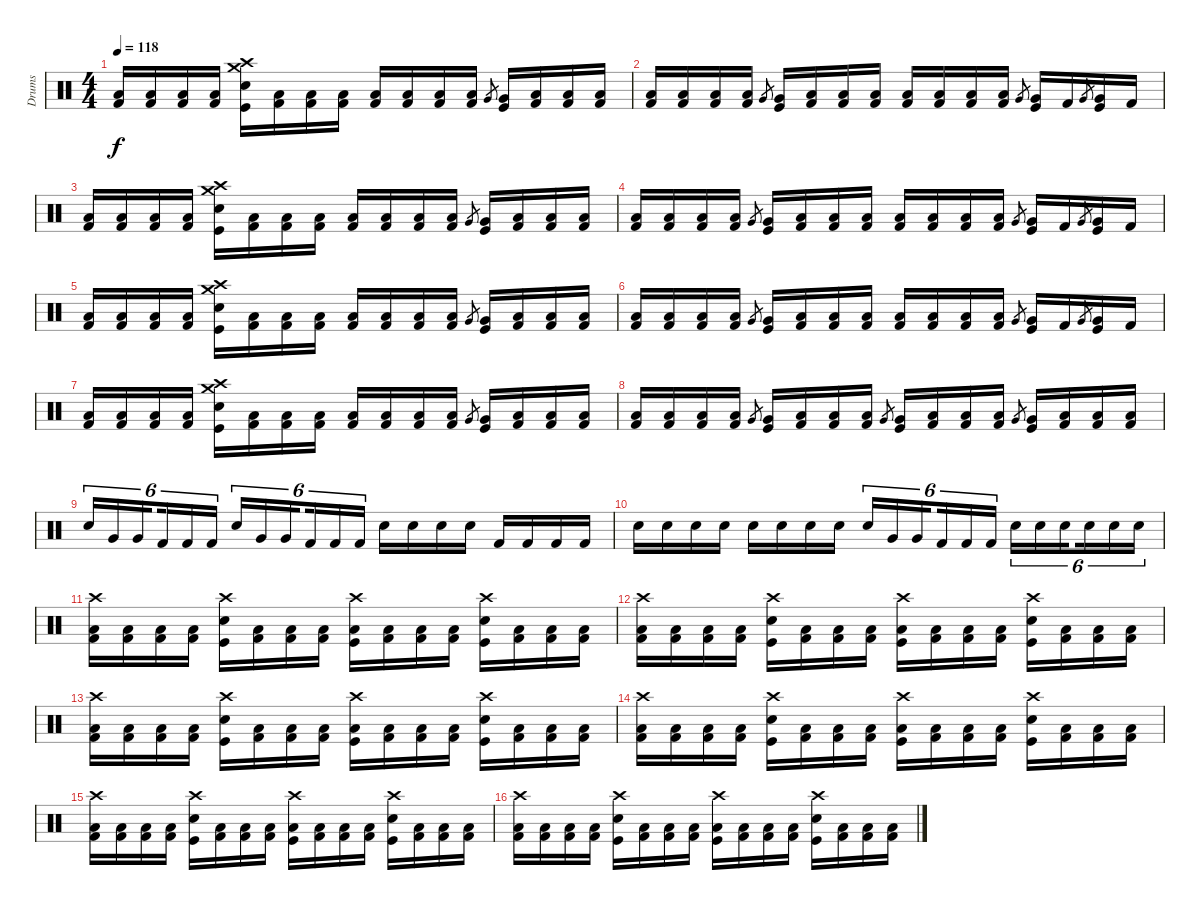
\track ("Drums" "Drums") {instrument percussion}
\staff {score}
\articulation defaults
\ts (4 4)
\tempo 118
\clef neutral
\ks c
("Kick (hit) 2" "Low Floor Tom (hit)").16{dy f} ("Kick (hit) 2" "Low Floor Tom (hit)").16 ("Kick (hit) 2" "Low Floor Tom (hit)").16 ("Kick (hit) 2" "Low Floor Tom (hit)").16 ("Kick (hit)" "Snare (hit) 2" "Crash medium (hit)" "Crash high (hit)").16 ("Kick (hit) 2" "Low Floor Tom (hit)").16 ("Kick (hit) 2" "Low Floor Tom (hit)").16 ("Kick (hit) 2" "Low Floor Tom (hit)").16 ("Kick (hit) 2" "Low Floor Tom (hit)").16 ("Kick (hit) 2" "Low Floor Tom (hit)").16 ("Kick (hit) 2" "Low Floor Tom (hit)").16 ("Kick (hit) 2" "Low Floor Tom (hit)").16 "Very Low Tom (hit)".8{gr} ("Kick (hit)" "Very Low Tom (hit)").16 ("Kick (hit) 2" "Low Floor Tom (hit)").16 ("Kick (hit) 2" "Low Floor Tom (hit)").16 ("Kick (hit) 2" "Low Floor Tom (hit)").16 |
("Kick (hit) 2" "Low Floor Tom (hit)").16 ("Kick (hit) 2" "Low Floor Tom (hit)").16 ("Kick (hit) 2" "Low Floor Tom (hit)").16 ("Kick (hit) 2" "Low Floor Tom (hit)").16 "Very Low Tom (hit)".8{gr} ("Kick (hit)" "Very Low Tom (hit)").16 ("Kick (hit) 2" "Low Floor Tom (hit)").16 ("Kick (hit) 2" "Low Floor Tom (hit)").16 ("Kick (hit) 2" "Low Floor Tom (hit)").16 ("Kick (hit) 2" "Low Floor Tom (hit)").16 ("Kick (hit) 2" "Low Floor Tom (hit)").16 ("Kick (hit) 2" "Low Floor Tom (hit)").16 ("Kick (hit) 2" "Low Floor Tom (hit)").16 "Very Low Tom (hit)".8{gr} ("Kick (hit)" "Very Low Tom (hit)").16 "Kick (hit) 2".16 "Very Low Tom (hit)".8{gr} ("Kick (hit)" "Very Low Tom (hit)").16 "Kick (hit) 2".16 |
("Kick (hit) 2" "Low Floor Tom (hit)").16 ("Kick (hit) 2" "Low Floor Tom (hit)").16 ("Kick (hit) 2" "Low Floor Tom (hit)").16 ("Kick (hit) 2" "Low Floor Tom (hit)").16 ("Kick (hit)" "Snare (hit) 2" "Crash medium (hit)" "Crash high (hit)").16 ("Kick (hit) 2" "Low Floor Tom (hit)").16 ("Kick (hit) 2" "Low Floor Tom (hit)").16 ("Kick (hit) 2" "Low Floor Tom (hit)").16 ("Kick (hit) 2" "Low Floor Tom (hit)").16 ("Kick (hit) 2" "Low Floor Tom (hit)").16 ("Kick (hit) 2" "Low Floor Tom (hit)").16 ("Kick (hit) 2" "Low Floor Tom (hit)").16 "Very Low Tom (hit)".8{gr} ("Kick (hit)" "Very Low Tom (hit)").16 ("Kick (hit) 2" "Low Floor Tom (hit)").16 ("Kick (hit) 2" "Low Floor Tom (hit)").16 ("Kick (hit) 2" "Low Floor Tom (hit)").16 |
("Kick (hit) 2" "Low Floor Tom (hit)").16 ("Kick (hit) 2" "Low Floor Tom (hit)").16 ("Kick (hit) 2" "Low Floor Tom (hit)").16 ("Kick (hit) 2" "Low Floor Tom (hit)").16 "Very Low Tom (hit)".8{gr} ("Kick (hit)" "Very Low Tom (hit)").16 ("Kick (hit) 2" "Low Floor Tom (hit)").16 ("Kick (hit) 2" "Low Floor Tom (hit)").16 ("Kick (hit) 2" "Low Floor Tom (hit)").16 ("Kick (hit) 2" "Low Floor Tom (hit)").16 ("Kick (hit) 2" "Low Floor Tom (hit)").16 ("Kick (hit) 2" "Low Floor Tom (hit)").16 ("Kick (hit) 2" "Low Floor Tom (hit)").16 "Very Low Tom (hit)".8{gr} ("Kick (hit)" "Very Low Tom (hit)").16 "Kick (hit) 2".16 "Very Low Tom (hit)".8{gr} ("Kick (hit)" "Very Low Tom (hit)").16 "Kick (hit) 2".16 |
("Kick (hit) 2" "Low Floor Tom (hit)").16 ("Kick (hit) 2" "Low Floor Tom (hit)").16 ("Kick (hit) 2" "Low Floor Tom (hit)").16 ("Kick (hit) 2" "Low Floor Tom (hit)").16 ("Kick (hit)" "Snare (hit) 2" "Crash medium (hit)" "Crash high (hit)").16 ("Kick (hit) 2" "Low Floor Tom (hit)").16 ("Kick (hit) 2" "Low Floor Tom (hit)").16 ("Kick (hit) 2" "Low Floor Tom (hit)").16 ("Kick (hit) 2" "Low Floor Tom (hit)").16 ("Kick (hit) 2" "Low Floor Tom (hit)").16 ("Kick (hit) 2" "Low Floor Tom (hit)").16 ("Kick (hit) 2" "Low Floor Tom (hit)").16 "Very Low Tom (hit)".8{gr} ("Kick (hit)" "Very Low Tom (hit)").16 ("Kick (hit) 2" "Low Floor Tom (hit)").16 ("Kick (hit) 2" "Low Floor Tom (hit)").16 ("Kick (hit) 2" "Low Floor Tom (hit)").16 |
("Kick (hit) 2" "Low Floor Tom (hit)").16 ("Kick (hit) 2" "Low Floor Tom (hit)").16 ("Kick (hit) 2" "Low Floor Tom (hit)").16 ("Kick (hit) 2" "Low Floor Tom (hit)").16 "Very Low Tom (hit)".8{gr} ("Kick (hit)" "Very Low Tom (hit)").16 ("Kick (hit) 2" "Low Floor Tom (hit)").16 ("Kick (hit) 2" "Low Floor Tom (hit)").16 ("Kick (hit) 2" "Low Floor Tom (hit)").16 ("Kick (hit) 2" "Low Floor Tom (hit)").16 ("Kick (hit) 2" "Low Floor Tom (hit)").16 ("Kick (hit) 2" "Low Floor Tom (hit)").16 ("Kick (hit) 2" "Low Floor Tom (hit)").16 "Very Low Tom (hit)".8{gr} ("Kick (hit)" "Very Low Tom (hit)").16 "Kick (hit) 2".16 "Very Low Tom (hit)".8{gr} ("Kick (hit)" "Very Low Tom (hit)").16 "Kick (hit) 2".16 |
("Kick (hit) 2" "Low Floor Tom (hit)").16 ("Kick (hit) 2" "Low Floor Tom (hit)").16 ("Kick (hit) 2" "Low Floor Tom (hit)").16 ("Kick (hit) 2" "Low Floor Tom (hit)").16 ("Kick (hit)" "Snare (hit) 2" "Crash medium (hit)" "Crash high (hit)").16 ("Kick (hit) 2" "Low Floor Tom (hit)").16 ("Kick (hit) 2" "Low Floor Tom (hit)").16 ("Kick (hit) 2" "Low Floor Tom (hit)").16 ("Kick (hit) 2" "Low Floor Tom (hit)").16 ("Kick (hit) 2" "Low Floor Tom (hit)").16 ("Kick (hit) 2" "Low Floor Tom (hit)").16 ("Kick (hit) 2" "Low Floor Tom (hit)").16 "Very Low Tom (hit)".8{gr} ("Kick (hit)" "Very Low Tom (hit)").16 ("Kick (hit) 2" "Low Floor Tom (hit)").16 ("Kick (hit) 2" "Low Floor Tom (hit)").16 ("Kick (hit) 2" "Low Floor Tom (hit)").16 |
("Kick (hit) 2" "Low Floor Tom (hit)").16 ("Kick (hit) 2" "Low Floor Tom (hit)").16 ("Kick (hit) 2" "Low Floor Tom (hit)").16 ("Kick (hit) 2" "Low Floor Tom (hit)").16 "Very Low Tom (hit)".8{gr} ("Kick (hit)" "Very Low Tom (hit)").16 ("Kick (hit) 2" "Low Floor Tom (hit)").16 ("Kick (hit) 2" "Low Floor Tom (hit)").16 ("Kick (hit) 2" "Low Floor Tom (hit)").16 "Very Low Tom (hit)".8{gr} ("Kick (hit)" "Very Low Tom (hit)").16 ("Kick (hit) 2" "Low Floor Tom (hit)").16 ("Kick (hit) 2" "Low Floor Tom (hit)").16 ("Kick (hit) 2" "Low Floor Tom (hit)").16 "Very Low Tom (hit)".8{gr} ("Kick (hit)" "Very Low Tom (hit)").16 ("Kick (hit) 2" "Low Floor Tom (hit)").16 ("Kick (hit) 2" "Low Floor Tom (hit)").16 ("Kick (hit) 2" "Low Floor Tom (hit)").16 |
"Electric Snare (hit)".16{tu (6 4)} "Very Low Tom (hit)".16{tu (6 4)} "Very Low Tom (hit)".16{tu (6 4) beam splitsecondary} "Kick (hit) 2".16{tu (6 4)} "Kick (hit) 2".16{tu (6 4)} "Kick (hit) 2".16{tu (6 4)} "Electric Snare (hit)".16{tu (6 4)} "Very Low Tom (hit)".16{tu (6 4)} "Very Low Tom (hit)".16{tu (6 4) beam splitsecondary} "Kick (hit) 2".16{tu (6 4)} "Kick (hit) 2".16{tu (6 4)} "Kick (hit) 2".16{tu (6 4)} "Electric Snare (hit)".16 "Electric Snare (hit)".16 "Electric Snare (hit)".16 "Electric Snare (hit)".16 "Kick (hit) 2".16 "Kick (hit) 2".16 "Kick (hit) 2".16 "Kick (hit) 2".16 |
"Electric Snare (hit)".16 "Electric Snare (hit)".16 "Electric Snare (hit)".16 "Electric Snare (hit)".16 "Electric Snare (hit)".16 "Electric Snare (hit)".16 "Electric Snare (hit)".16 "Electric Snare (hit)".16 "Electric Snare (hit)".16{tu (6 4)} "Very Low Tom (hit)".16{tu (6 4)} "Very Low Tom (hit)".16{tu (6 4) beam splitsecondary} "Kick (hit) 2".16{tu (6 4)} "Kick (hit) 2".16{tu (6 4)} "Kick (hit) 2".16{tu (6 4)} "Electric Snare (hit)".16{tu (6 4)} "Electric Snare (hit)".16{tu (6 4)} "Electric Snare (hit)".16{tu (6 4) beam splitsecondary} "Electric Snare (hit)".16{tu (6 4)} "Electric Snare (hit)".16{tu (6 4)} "Electric Snare (hit)".16{tu (6 4)} |
("Kick (hit) 2" "Low Floor Tom (hit)" "Crash high (hit)").16 ("Kick (hit) 2" "Low Floor Tom (hit)").16 ("Kick (hit) 2" "Low Floor Tom (hit)").16 ("Kick (hit) 2" "Low Floor Tom (hit)").16 ("Kick (hit)" "Snare (hit) 2" "Crash high (hit)").16 ("Kick (hit) 2" "Low Floor Tom (hit)").16 ("Kick (hit) 2" "Low Floor Tom (hit)").16 ("Kick (hit) 2" "Low Floor Tom (hit)").16 ("Kick (hit)" "Low Floor Tom (hit)" "Crash high (hit)").16 ("Kick (hit) 2" "Low Floor Tom (hit)").16 ("Kick (hit) 2" "Low Floor Tom (hit)").16 ("Kick (hit) 2" "Low Floor Tom (hit)").16 ("Kick (hit)" "Snare (hit) 2" "Crash high (hit)").16 ("Kick (hit) 2" "Low Floor Tom (hit)").16 ("Kick (hit) 2" "Low Floor Tom (hit)").16 ("Kick (hit) 2" "Low Floor Tom (hit)").16 |
("Kick (hit) 2" "Low Floor Tom (hit)" "Crash high (hit)").16 ("Kick (hit) 2" "Low Floor Tom (hit)").16 ("Kick (hit) 2" "Low Floor Tom (hit)").16 ("Kick (hit) 2" "Low Floor Tom (hit)").16 ("Kick (hit)" "Snare (hit) 2" "Crash high (hit)").16 ("Kick (hit) 2" "Low Floor Tom (hit)").16 ("Kick (hit) 2" "Low Floor Tom (hit)").16 ("Kick (hit) 2" "Low Floor Tom (hit)").16 ("Kick (hit)" "Low Floor Tom (hit)" "Crash high (hit)").16 ("Kick (hit) 2" "Low Floor Tom (hit)").16 ("Kick (hit) 2" "Low Floor Tom (hit)").16 ("Kick (hit) 2" "Low Floor Tom (hit)").16 ("Kick (hit)" "Snare (hit) 2" "Crash high (hit)").16 ("Kick (hit) 2" "Low Floor Tom (hit)").16 ("Kick (hit) 2" "Low Floor Tom (hit)").16 ("Kick (hit) 2" "Low Floor Tom (hit)").16 |
("Kick (hit) 2" "Low Floor Tom (hit)" "Crash high (hit)").16 ("Kick (hit) 2" "Low Floor Tom (hit)").16 ("Kick (hit) 2" "Low Floor Tom (hit)").16 ("Kick (hit) 2" "Low Floor Tom (hit)").16 ("Kick (hit)" "Snare (hit) 2" "Crash high (hit)").16 ("Kick (hit) 2" "Low Floor Tom (hit)").16 ("Kick (hit) 2" "Low Floor Tom (hit)").16 ("Kick (hit) 2" "Low Floor Tom (hit)").16 ("Kick (hit)" "Low Floor Tom (hit)" "Crash high (hit)").16 ("Kick (hit) 2" "Low Floor Tom (hit)").16 ("Kick (hit) 2" "Low Floor Tom (hit)").16 ("Kick (hit) 2" "Low Floor Tom (hit)").16 ("Kick (hit)" "Snare (hit) 2" "Crash high (hit)").16 ("Kick (hit) 2" "Low Floor Tom (hit)").16 ("Kick (hit) 2" "Low Floor Tom (hit)").16 ("Kick (hit) 2" "Low Floor Tom (hit)").16 |
("Kick (hit) 2" "Low Floor Tom (hit)" "Crash high (hit)").16 ("Kick (hit) 2" "Low Floor Tom (hit)").16 ("Kick (hit) 2" "Low Floor Tom (hit)").16 ("Kick (hit) 2" "Low Floor Tom (hit)").16 ("Kick (hit)" "Snare (hit) 2" "Crash high (hit)").16 ("Kick (hit) 2" "Low Floor Tom (hit)").16 ("Kick (hit) 2" "Low Floor Tom (hit)").16 ("Kick (hit) 2" "Low Floor Tom (hit)").16 ("Kick (hit)" "Low Floor Tom (hit)" "Crash high (hit)").16 ("Kick (hit) 2" "Low Floor Tom (hit)").16 ("Kick (hit) 2" "Low Floor Tom (hit)").16 ("Kick (hit) 2" "Low Floor Tom (hit)").16 ("Kick (hit)" "Snare (hit) 2" "Crash high (hit)").16 ("Kick (hit) 2" "Low Floor Tom (hit)").16 ("Kick (hit) 2" "Low Floor Tom (hit)").16 ("Kick (hit) 2" "Low Floor Tom (hit)").16 |
("Kick (hit) 2" "Low Floor Tom (hit)" "Crash high (hit)").16 ("Kick (hit) 2" "Low Floor Tom (hit)").16 ("Kick (hit) 2" "Low Floor Tom (hit)").16 ("Kick (hit) 2" "Low Floor Tom (hit)").16 ("Kick (hit)" "Snare (hit) 2" "Crash high (hit)").16 ("Kick (hit) 2" "Low Floor Tom (hit)").16 ("Kick (hit) 2" "Low Floor Tom (hit)").16 ("Kick (hit) 2" "Low Floor Tom (hit)").16 ("Kick (hit)" "Low Floor Tom (hit)" "Crash high (hit)").16 ("Kick (hit) 2" "Low Floor Tom (hit)").16 ("Kick (hit) 2" "Low Floor Tom (hit)").16 ("Kick (hit) 2" "Low Floor Tom (hit)").16 ("Kick (hit)" "Snare (hit) 2" "Crash high (hit)").16 ("Kick (hit) 2" "Low Floor Tom (hit)").16 ("Kick (hit) 2" "Low Floor Tom (hit)").16 ("Kick (hit) 2" "Low Floor Tom (hit)").16 |
("Kick (hit) 2" "Low Floor Tom (hit)" "Crash high (hit)").16 ("Kick (hit) 2" "Low Floor Tom (hit)").16 ("Kick (hit) 2" "Low Floor Tom (hit)").16 ("Kick (hit) 2" "Low Floor Tom (hit)").16 ("Kick (hit)" "Snare (hit) 2" "Crash high (hit)").16 ("Kick (hit) 2" "Low Floor Tom (hit)").16 ("Kick (hit) 2" "Low Floor Tom (hit)").16 ("Kick (hit) 2" "Low Floor Tom (hit)").16 ("Kick (hit)" "Low Floor Tom (hit)" "Crash high (hit)").16 ("Kick (hit) 2" "Low Floor Tom (hit)").16 ("Kick (hit) 2" "Low Floor Tom (hit)").16 ("Kick (hit) 2" "Low Floor Tom (hit)").16 ("Kick (hit)" "Snare (hit) 2" "Crash high (hit)").16 ("Kick (hit) 2" "Low Floor Tom (hit)").16 ("Kick (hit) 2" "Low Floor Tom (hit)").16 ("Kick (hit) 2" "Low Floor Tom (hit)").16
